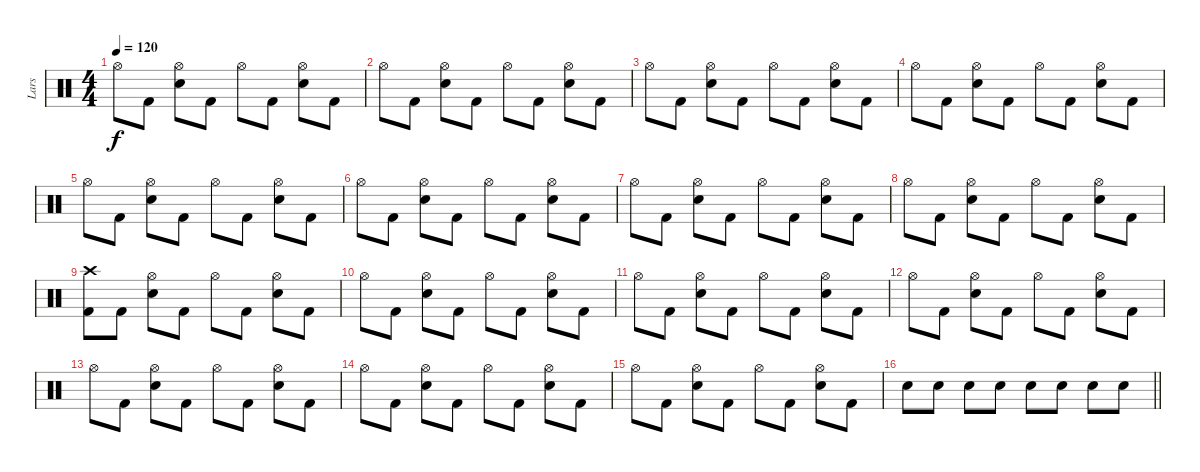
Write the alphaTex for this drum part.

\track ("Lars" "Lars") {instrument percussion}
\staff {score}
\articulation defaults
\ts (4 4)
\tempo 120
\clef neutral
\ks c "Hi-Hat (open)".8{dy f} "Kick (hit) 2".8
("Snare (hit) 2" "Hi-Hat (open)").8 "Kick (hit) 2".8 "Hi-Hat (open)".8 "Kick (hit) 2".8 ("Snare (hit) 2" "Hi-Hat (open)").8 "Kick (hit) 2".8 |
"Hi-Hat (open)".8 "Kick (hit) 2".8 ("Snare (hit) 2" "Hi-Hat (open)").8 "Kick (hit) 2".8 "Hi-Hat (open)".8 "Kick (hit) 2".8 ("Snare (hit) 2" "Hi-Hat (open)").8 "Kick (hit) 2".8 |
"Hi-Hat (open)".8 "Kick (hit) 2".8 ("Snare (hit) 2" "Hi-Hat (open)").8 "Kick (hit) 2".8 "Hi-Hat (open)".8 "Kick (hit) 2".8 ("Snare (hit) 2" "Hi-Hat (open)").8 "Kick (hit) 2".8 |
"Hi-Hat (open)".8 "Kick (hit) 2".8 ("Snare (hit) 2" "Hi-Hat (open)").8 "Kick (hit) 2".8 "Hi-Hat (open)".8 "Kick (hit) 2".8 ("Snare (hit) 2" "Hi-Hat (open)").8 "Kick (hit) 2".8 |
"Hi-Hat (open)".8 "Kick (hit) 2".8 ("Snare (hit) 2" "Hi-Hat (open)").8 "Kick (hit) 2".8 "Hi-Hat (open)".8 "Kick (hit) 2".8 ("Snare (hit) 2" "Hi-Hat (open)").8 "Kick (hit) 2".8 |
"Hi-Hat (open)".8 "Kick (hit) 2".8 ("Snare (hit) 2" "Hi-Hat (open)").8 "Kick (hit) 2".8 "Hi-Hat (open)".8 "Kick (hit) 2".8 ("Snare (hit) 2" "Hi-Hat (open)").8 "Kick (hit) 2".8 |
"Hi-Hat (open)".8 "Kick (hit) 2".8 ("Snare (hit) 2" "Hi-Hat (open)").8 "Kick (hit) 2".8 "Hi-Hat (open)".8 "Kick (hit) 2".8 ("Snare (hit) 2" "Hi-Hat (open)").8 "Kick (hit) 2".8 |
"Hi-Hat (open)".8 "Kick (hit) 2".8 ("Snare (hit) 2" "Hi-Hat (open)").8 "Kick (hit) 2".8 "Hi-Hat (open)".8 "Kick (hit) 2".8 ("Snare (hit) 2" "Hi-Hat (open)").8 "Kick (hit) 2".8 |
("Kick (hit) 2" "Crash high (hit)").8 "Kick (hit) 2".8 ("Snare (hit) 2" "Hi-Hat (open)").8 "Kick (hit) 2".8 "Hi-Hat (open)".8 "Kick (hit) 2".8 ("Snare (hit) 2" "Hi-Hat (open)").8 "Kick (hit) 2".8 |
"Hi-Hat (open)".8 "Kick (hit) 2".8 ("Snare (hit) 2" "Hi-Hat (open)").8 "Kick (hit) 2".8 "Hi-Hat (open)".8 "Kick (hit) 2".8 ("Snare (hit) 2" "Hi-Hat (open)").8 "Kick (hit) 2".8 |
"Hi-Hat (open)".8 "Kick (hit) 2".8 ("Snare (hit) 2" "Hi-Hat (open)").8 "Kick (hit) 2".8 "Hi-Hat (open)".8 "Kick (hit) 2".8 ("Snare (hit) 2" "Hi-Hat (open)").8 "Kick (hit) 2".8 |
"Hi-Hat (open)".8 "Kick (hit) 2".8 ("Snare (hit) 2" "Hi-Hat (open)").8 "Kick (hit) 2".8 "Hi-Hat (open)".8 "Kick (hit) 2".8 ("Snare (hit) 2" "Hi-Hat (open)").8 "Kick (hit) 2".8 |
"Hi-Hat (open)".8 "Kick (hit) 2".8 ("Snare (hit) 2" "Hi-Hat (open)").8 "Kick (hit) 2".8 "Hi-Hat (open)".8 "Kick (hit) 2".8 ("Snare (hit) 2" "Hi-Hat (open)").8 "Kick (hit) 2".8 |
"Hi-Hat (open)".8 "Kick (hit) 2".8 ("Snare (hit) 2" "Hi-Hat (open)").8 "Kick (hit) 2".8 "Hi-Hat (open)".8 "Kick (hit) 2".8 ("Snare (hit) 2" "Hi-Hat (open)").8 "Kick (hit) 2".8 |
"Hi-Hat (open)".8 "Kick (hit) 2".8 ("Snare (hit) 2" "Hi-Hat (open)").8 "Kick (hit) 2".8 "Hi-Hat (open)".8 "Kick (hit) 2".8 ("Snare (hit) 2" "Hi-Hat (open)").8 "Kick (hit) 2".8 |
\barLineRight lightlight "Snare (hit) 2".8 "Snare (hit) 2".8 "Snare (hit) 2".8 "Snare (hit) 2".8 "Snare (hit) 2".8 "Snare (hit) 2".8 "Snare (hit) 2".8 "Snare (hit) 2".8
